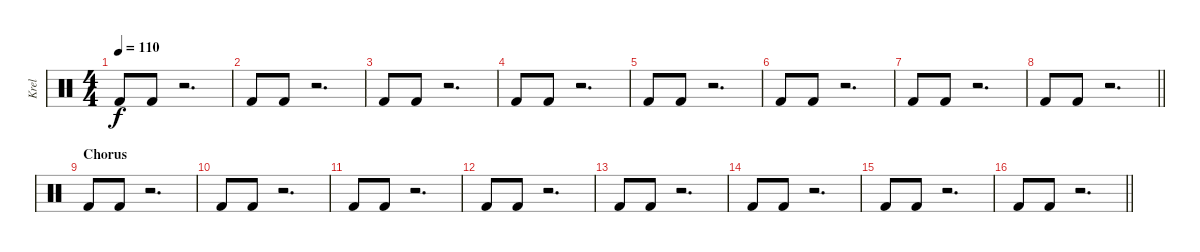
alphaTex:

\track ("Krel" "Krel") {instrument percussion}
\staff {score}
\articulation defaults
\ts (4 4)
\tempo 110
\clef neutral
\ks c "Kick (hit) 2".8{dy f} "Kick (hit) 2".8
r.2{d} |
"Kick (hit) 2".8 "Kick (hit) 2".8 r.2{d} |
"Kick (hit) 2".8 "Kick (hit) 2".8 r.2{d} |
"Kick (hit) 2".8 "Kick (hit) 2".8 r.2{d} |
"Kick (hit) 2".8 "Kick (hit) 2".8 r.2{d} |
"Kick (hit) 2".8 "Kick (hit) 2".8 r.2{d} |
"Kick (hit) 2".8 "Kick (hit) 2".8 r.2{d} |
\barLineRight lightlight "Kick (hit) 2".8 "Kick (hit) 2".8
r.2{d} |
\section ("" "Chorus")
"Kick (hit) 2".8 "Kick (hit) 2".8 r.2{d} |
"Kick (hit) 2".8 "Kick (hit) 2".8 r.2{d} |
"Kick (hit) 2".8 "Kick (hit) 2".8 r.2{d} |
"Kick (hit) 2".8 "Kick (hit) 2".8 r.2{d} |
"Kick (hit) 2".8 "Kick (hit) 2".8 r.2{d} |
"Kick (hit) 2".8 "Kick (hit) 2".8 r.2{d} |
"Kick (hit) 2".8 "Kick (hit) 2".8 r.2{d} |
\barLineRight lightlight "Kick (hit) 2".8 "Kick (hit) 2".8
r.2{d}
